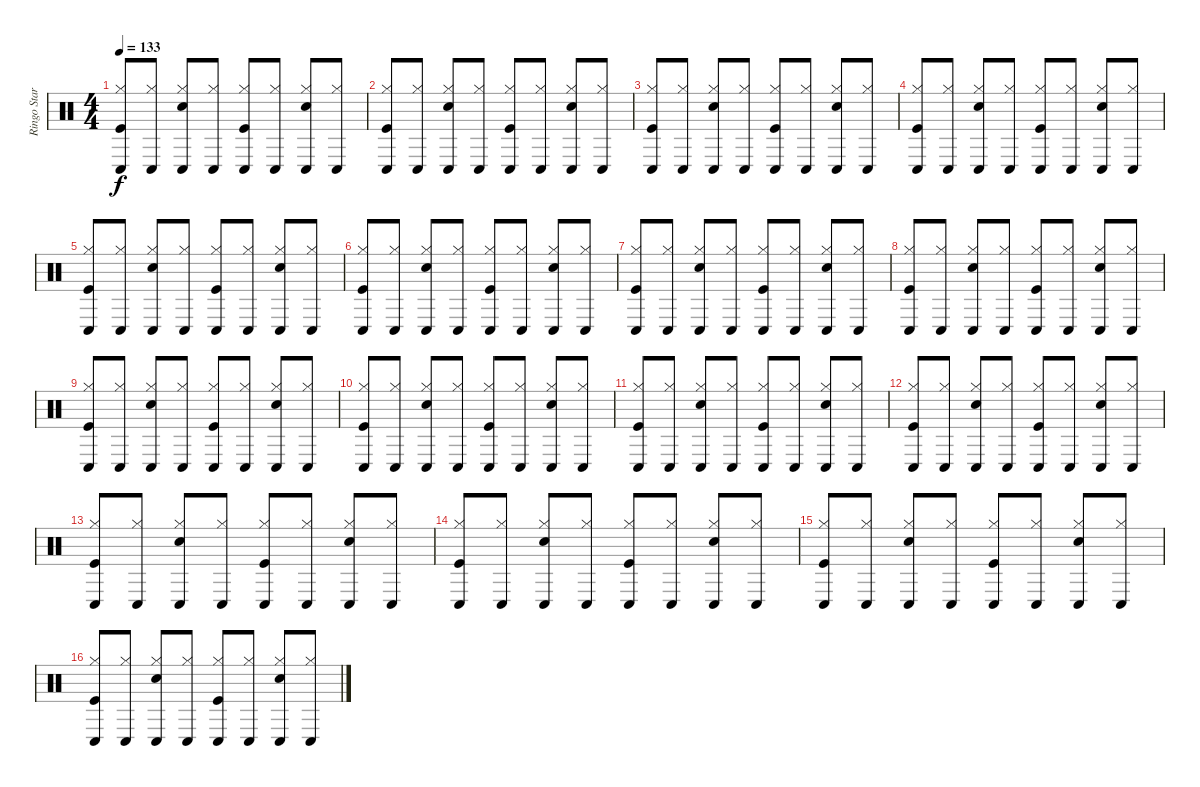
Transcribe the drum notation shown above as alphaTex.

\track ("Ringo Starr - Drums" "Ringo Star") {instrument percussion}
\staff {score}
\articulation defaults
\ts (4 4)
\tempo 133
\clef neutral
\ks c
("Kick (hit)" "Hi-Hat (closed)" "Conga low (hit)").8{dy f} ("Conga low (hit)" "Hi-Hat (closed)").8 ("Conga low (hit)" "Hi-Hat (closed)" "Snare (hit) 2").8 ("Conga low (hit)" "Hi-Hat (closed)").8 ("Conga low (hit)" "Hi-Hat (closed)" "Kick (hit)").8 ("Conga low (hit)" "Hi-Hat (closed)").8 ("Conga low (hit)" "Hi-Hat (closed)" "Snare (hit) 2").8 ("Conga low (hit)" "Hi-Hat (closed)").8 |
("Kick (hit)" "Hi-Hat (closed)" "Conga low (hit)").8 ("Conga low (hit)" "Hi-Hat (closed)").8 ("Conga low (hit)" "Hi-Hat (closed)" "Snare (hit) 2").8 ("Conga low (hit)" "Hi-Hat (closed)").8 ("Conga low (hit)" "Hi-Hat (closed)" "Kick (hit)").8 ("Conga low (hit)" "Hi-Hat (closed)").8 ("Conga low (hit)" "Hi-Hat (closed)" "Snare (hit) 2").8 ("Conga low (hit)" "Hi-Hat (closed)").8 |
("Kick (hit)" "Hi-Hat (closed)" "Conga low (hit)").8 ("Conga low (hit)" "Hi-Hat (closed)").8 ("Conga low (hit)" "Hi-Hat (closed)" "Snare (hit) 2").8 ("Conga low (hit)" "Hi-Hat (closed)").8 ("Conga low (hit)" "Hi-Hat (closed)" "Kick (hit)").8 ("Conga low (hit)" "Hi-Hat (closed)").8 ("Conga low (hit)" "Hi-Hat (closed)" "Snare (hit) 2").8 ("Conga low (hit)" "Hi-Hat (closed)").8 |
("Kick (hit)" "Hi-Hat (closed)" "Conga low (hit)").8 ("Conga low (hit)" "Hi-Hat (closed)").8 ("Conga low (hit)" "Hi-Hat (closed)" "Snare (hit) 2").8 ("Conga low (hit)" "Hi-Hat (closed)").8 ("Conga low (hit)" "Hi-Hat (closed)" "Kick (hit)").8 ("Conga low (hit)" "Hi-Hat (closed)").8 ("Conga low (hit)" "Hi-Hat (closed)" "Snare (hit) 2").8 ("Conga low (hit)" "Hi-Hat (closed)").8 |
("Kick (hit)" "Hi-Hat (closed)" "Conga low (hit)").8 ("Conga low (hit)" "Hi-Hat (closed)").8 ("Conga low (hit)" "Hi-Hat (closed)" "Snare (hit) 2").8 ("Conga low (hit)" "Hi-Hat (closed)").8 ("Conga low (hit)" "Hi-Hat (closed)" "Kick (hit)").8 ("Conga low (hit)" "Hi-Hat (closed)").8 ("Conga low (hit)" "Hi-Hat (closed)" "Snare (hit) 2").8 ("Conga low (hit)" "Hi-Hat (closed)").8 |
("Kick (hit)" "Hi-Hat (closed)" "Conga low (hit)").8 ("Conga low (hit)" "Hi-Hat (closed)").8 ("Conga low (hit)" "Hi-Hat (closed)" "Snare (hit) 2").8 ("Conga low (hit)" "Hi-Hat (closed)").8 ("Conga low (hit)" "Hi-Hat (closed)" "Kick (hit)").8 ("Conga low (hit)" "Hi-Hat (closed)").8 ("Conga low (hit)" "Hi-Hat (closed)" "Snare (hit) 2").8 ("Conga low (hit)" "Hi-Hat (closed)").8 |
("Conga low (hit)" "Hi-Hat (closed)" "Kick (hit)").8 ("Conga low (hit)" "Hi-Hat (closed)").8 ("Conga low (hit)" "Hi-Hat (closed)" "Snare (hit) 2").8 ("Conga low (hit)" "Hi-Hat (closed)").8 ("Conga low (hit)" "Hi-Hat (closed)" "Kick (hit)").8 ("Conga low (hit)" "Hi-Hat (closed)").8 ("Conga low (hit)" "Hi-Hat (closed)" "Snare (hit) 2").8 ("Conga low (hit)" "Hi-Hat (closed)").8 |
("Conga low (hit)" "Hi-Hat (closed)" "Kick (hit)").8 ("Conga low (hit)" "Hi-Hat (closed)").8 ("Conga low (hit)" "Hi-Hat (closed)" "Snare (hit) 2").8 ("Conga low (hit)" "Hi-Hat (closed)").8 ("Conga low (hit)" "Hi-Hat (closed)" "Kick (hit)").8 ("Conga low (hit)" "Hi-Hat (closed)").8 ("Conga low (hit)" "Hi-Hat (closed)" "Snare (hit) 2").8 ("Conga low (hit)" "Hi-Hat (closed)").8 |
("Conga low (hit)" "Hi-Hat (closed)" "Kick (hit)").8 ("Conga low (hit)" "Hi-Hat (closed)").8 ("Conga low (hit)" "Hi-Hat (closed)" "Snare (hit) 2").8 ("Conga low (hit)" "Hi-Hat (closed)").8 ("Conga low (hit)" "Hi-Hat (closed)" "Kick (hit)").8 ("Conga low (hit)" "Hi-Hat (closed)").8 ("Conga low (hit)" "Hi-Hat (closed)" "Snare (hit) 2").8 ("Conga low (hit)" "Hi-Hat (closed)").8 |
("Conga low (hit)" "Hi-Hat (closed)" "Kick (hit)").8 ("Conga low (hit)" "Hi-Hat (closed)").8 ("Conga low (hit)" "Hi-Hat (closed)" "Snare (hit) 2").8 ("Conga low (hit)" "Hi-Hat (closed)").8 ("Conga low (hit)" "Hi-Hat (closed)" "Kick (hit)").8 ("Conga low (hit)" "Hi-Hat (closed)").8 ("Conga low (hit)" "Hi-Hat (closed)" "Snare (hit) 2").8 ("Conga low (hit)" "Hi-Hat (closed)").8 |
("Kick (hit)" "Hi-Hat (closed)" "Conga low (hit)").8 ("Conga low (hit)" "Hi-Hat (closed)").8 ("Conga low (hit)" "Hi-Hat (closed)" "Snare (hit) 2").8 ("Conga low (hit)" "Hi-Hat (closed)").8 ("Conga low (hit)" "Hi-Hat (closed)" "Kick (hit)").8 ("Conga low (hit)" "Hi-Hat (closed)").8 ("Conga low (hit)" "Hi-Hat (closed)" "Snare (hit) 2").8 ("Conga low (hit)" "Hi-Hat (closed)").8 |
("Kick (hit)" "Hi-Hat (closed)" "Conga low (hit)").8 ("Conga low (hit)" "Hi-Hat (closed)").8 ("Conga low (hit)" "Hi-Hat (closed)" "Snare (hit) 2").8 ("Conga low (hit)" "Hi-Hat (closed)").8 ("Conga low (hit)" "Hi-Hat (closed)" "Kick (hit)").8 ("Conga low (hit)" "Hi-Hat (closed)").8 ("Conga low (hit)" "Hi-Hat (closed)" "Snare (hit) 2").8 ("Conga low (hit)" "Hi-Hat (closed)").8 |
("Kick (hit)" "Hi-Hat (closed)" "Conga low (hit)").8 ("Conga low (hit)" "Hi-Hat (closed)").8 ("Conga low (hit)" "Hi-Hat (closed)" "Snare (hit) 2").8 ("Conga low (hit)" "Hi-Hat (closed)").8 ("Conga low (hit)" "Hi-Hat (closed)" "Kick (hit)").8 ("Conga low (hit)" "Hi-Hat (closed)").8 ("Conga low (hit)" "Hi-Hat (closed)" "Snare (hit) 2").8 ("Conga low (hit)" "Hi-Hat (closed)").8 |
("Kick (hit)" "Hi-Hat (closed)" "Conga low (hit)").8 ("Conga low (hit)" "Hi-Hat (closed)").8 ("Conga low (hit)" "Hi-Hat (closed)" "Snare (hit) 2").8 ("Conga low (hit)" "Hi-Hat (closed)").8 ("Conga low (hit)" "Hi-Hat (closed)" "Kick (hit)").8 ("Conga low (hit)" "Hi-Hat (closed)").8 ("Conga low (hit)" "Hi-Hat (closed)" "Snare (hit) 2").8 ("Conga low (hit)" "Hi-Hat (closed)").8 |
("Kick (hit)" "Hi-Hat (closed)" "Conga low (hit)").8 ("Conga low (hit)" "Hi-Hat (closed)").8 ("Conga low (hit)" "Hi-Hat (closed)" "Snare (hit) 2").8 ("Conga low (hit)" "Hi-Hat (closed)").8 ("Conga low (hit)" "Hi-Hat (closed)" "Kick (hit)").8 ("Conga low (hit)" "Hi-Hat (closed)").8 ("Conga low (hit)" "Hi-Hat (closed)" "Snare (hit) 2").8 ("Conga low (hit)" "Hi-Hat (closed)").8 |
("Kick (hit)" "Hi-Hat (closed)" "Conga low (hit)").8 ("Conga low (hit)" "Hi-Hat (closed)").8 ("Conga low (hit)" "Hi-Hat (closed)" "Snare (hit) 2").8 ("Conga low (hit)" "Hi-Hat (closed)").8 ("Conga low (hit)" "Hi-Hat (closed)" "Kick (hit)").8 ("Conga low (hit)" "Hi-Hat (closed)").8 ("Conga low (hit)" "Hi-Hat (closed)" "Snare (hit) 2").8 ("Conga low (hit)" "Hi-Hat (closed)").8
